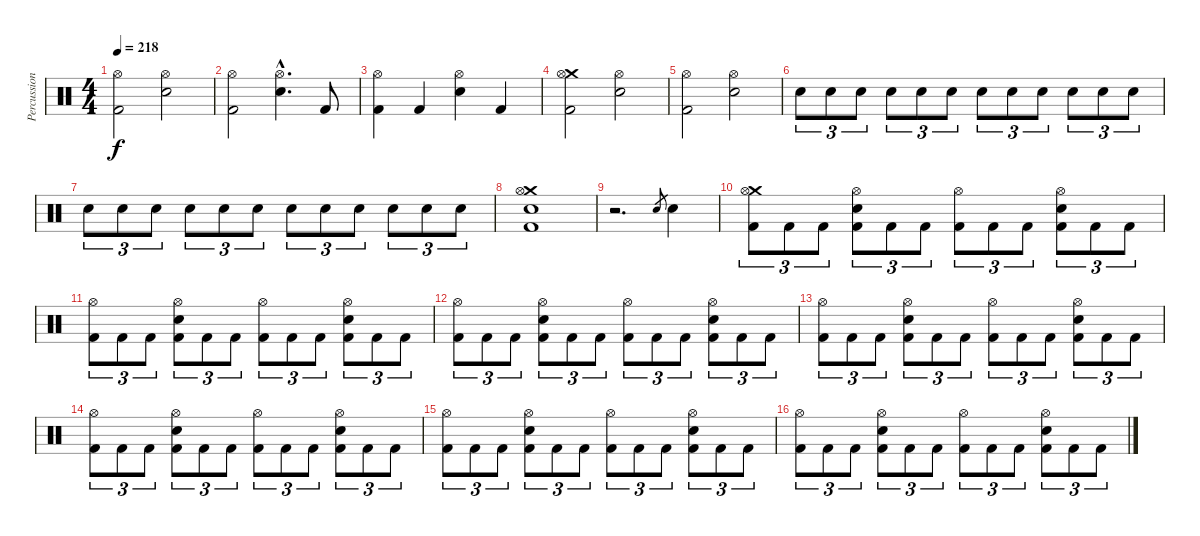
\track ("Percussion" "Percussion") {instrument percussion}
\staff {score}
\articulation defaults
\ts (4 4)
\tempo 218
\clef neutral
\ks c
("Hi-Hat (open)" "Kick (hit) 2").2{dy f} ("Hi-Hat (open)" "Electric Snare (hit)").2 |
("Hi-Hat (open)" "Kick (hit) 2").2 ("Hi-Hat (open)"{hac} "Electric Snare (hit)"{hac}).4{d} "Kick (hit) 2".8 |
("Hi-Hat (open)" "Kick (hit) 2").4 "Kick (hit) 2".4 ("Hi-Hat (open)" "Electric Snare (hit)").4 "Kick (hit) 2".4 |
("Crash medium (hit)" "Hi-Hat (open)" "Kick (hit) 2").2 ("Hi-Hat (open)" "Electric Snare (hit)").2 |
("Hi-Hat (open)" "Kick (hit) 2").2 ("Hi-Hat (open)" "Electric Snare (hit)").2 |
"Electric Snare (hit)".8{tu (3 2)} "Electric Snare (hit)".8{tu (3 2)} "Electric Snare (hit)".8{tu (3 2)} "Electric Snare (hit)".8{tu (3 2)} "Electric Snare (hit)".8{tu (3 2)} "Electric Snare (hit)".8{tu (3 2)} "Electric Snare (hit)".8{tu (3 2)} "Electric Snare (hit)".8{tu (3 2)} "Electric Snare (hit)".8{tu (3 2)} "Electric Snare (hit)".8{tu (3 2)} "Electric Snare (hit)".8{tu (3 2)} "Electric Snare (hit)".8{tu (3 2)} |
"Electric Snare (hit)".8{tu (3 2)} "Electric Snare (hit)".8{tu (3 2)} "Electric Snare (hit)".8{tu (3 2)} "Electric Snare (hit)".8{tu (3 2)} "Electric Snare (hit)".8{tu (3 2)} "Electric Snare (hit)".8{tu (3 2)} "Electric Snare (hit)".8{tu (3 2)} "Electric Snare (hit)".8{tu (3 2)} "Electric Snare (hit)".8{tu (3 2)} "Electric Snare (hit)".8{tu (3 2)} "Electric Snare (hit)".8{tu (3 2)} "Electric Snare (hit)".8{tu (3 2)} |
("Crash medium (hit)" "Hi-Hat (open)" "Electric Snare (hit)" "Kick (hit) 2").1 |
r.2{d} "Electric Snare (hit)".8{gr} "Electric Snare (hit)".4 |
("Crash medium (hit)" "Hi-Hat (open)" "Kick (hit) 2").8{tu (3 2)} "Kick (hit) 2".8{tu (3 2)} "Kick (hit) 2".8{tu (3 2)} ("Hi-Hat (open)" "Electric Snare (hit)" "Kick (hit) 2").8{tu (3 2)} "Kick (hit) 2".8{tu (3 2)} "Kick (hit) 2".8{tu (3 2)} ("Hi-Hat (open)" "Kick (hit) 2").8{tu (3 2)} "Kick (hit) 2".8{tu (3 2)} "Kick (hit) 2".8{tu (3 2)} ("Hi-Hat (open)" "Electric Snare (hit)" "Kick (hit) 2").8{tu (3 2)} "Kick (hit) 2".8{tu (3 2)} "Kick (hit) 2".8{tu (3 2)} |
("Hi-Hat (open)" "Kick (hit) 2").8{tu (3 2)} "Kick (hit) 2".8{tu (3 2)} "Kick (hit) 2".8{tu (3 2)} ("Hi-Hat (open)" "Electric Snare (hit)" "Kick (hit) 2").8{tu (3 2)} "Kick (hit) 2".8{tu (3 2)} "Kick (hit) 2".8{tu (3 2)} ("Hi-Hat (open)" "Kick (hit) 2").8{tu (3 2)} "Kick (hit) 2".8{tu (3 2)} "Kick (hit) 2".8{tu (3 2)} ("Hi-Hat (open)" "Electric Snare (hit)" "Kick (hit) 2").8{tu (3 2)} "Kick (hit) 2".8{tu (3 2)} "Kick (hit) 2".8{tu (3 2)} |
("Hi-Hat (open)" "Kick (hit) 2").8{tu (3 2)} "Kick (hit) 2".8{tu (3 2)} "Kick (hit) 2".8{tu (3 2)} ("Hi-Hat (open)" "Electric Snare (hit)" "Kick (hit) 2").8{tu (3 2)} "Kick (hit) 2".8{tu (3 2)} "Kick (hit) 2".8{tu (3 2)} ("Hi-Hat (open)" "Kick (hit) 2").8{tu (3 2)} "Kick (hit) 2".8{tu (3 2)} "Kick (hit) 2".8{tu (3 2)} ("Hi-Hat (open)" "Electric Snare (hit)" "Kick (hit) 2").8{tu (3 2)} "Kick (hit) 2".8{tu (3 2)} "Kick (hit) 2".8{tu (3 2)} |
("Hi-Hat (open)" "Kick (hit) 2").8{tu (3 2)} "Kick (hit) 2".8{tu (3 2)} "Kick (hit) 2".8{tu (3 2)} ("Hi-Hat (open)" "Electric Snare (hit)" "Kick (hit) 2").8{tu (3 2)} "Kick (hit) 2".8{tu (3 2)} "Kick (hit) 2".8{tu (3 2)} ("Hi-Hat (open)" "Kick (hit) 2").8{tu (3 2)} "Kick (hit) 2".8{tu (3 2)} "Kick (hit) 2".8{tu (3 2)} ("Hi-Hat (open)" "Electric Snare (hit)" "Kick (hit) 2").8{tu (3 2)} "Kick (hit) 2".8{tu (3 2)} "Kick (hit) 2".8{tu (3 2)} |
("Hi-Hat (open)" "Kick (hit) 2").8{tu (3 2)} "Kick (hit) 2".8{tu (3 2)} "Kick (hit) 2".8{tu (3 2)} ("Hi-Hat (open)" "Electric Snare (hit)" "Kick (hit) 2").8{tu (3 2)} "Kick (hit) 2".8{tu (3 2)} "Kick (hit) 2".8{tu (3 2)} ("Hi-Hat (open)" "Kick (hit) 2").8{tu (3 2)} "Kick (hit) 2".8{tu (3 2)} "Kick (hit) 2".8{tu (3 2)} ("Hi-Hat (open)" "Electric Snare (hit)" "Kick (hit) 2").8{tu (3 2)} "Kick (hit) 2".8{tu (3 2)} "Kick (hit) 2".8{tu (3 2)} |
("Hi-Hat (open)" "Kick (hit) 2").8{tu (3 2)} "Kick (hit) 2".8{tu (3 2)} "Kick (hit) 2".8{tu (3 2)} ("Hi-Hat (open)" "Electric Snare (hit)" "Kick (hit) 2").8{tu (3 2)} "Kick (hit) 2".8{tu (3 2)} "Kick (hit) 2".8{tu (3 2)} ("Hi-Hat (open)" "Kick (hit) 2").8{tu (3 2)} "Kick (hit) 2".8{tu (3 2)} "Kick (hit) 2".8{tu (3 2)} ("Hi-Hat (open)" "Electric Snare (hit)" "Kick (hit) 2").8{tu (3 2)} "Kick (hit) 2".8{tu (3 2)} "Kick (hit) 2".8{tu (3 2)} |
("Hi-Hat (open)" "Kick (hit) 2").8{tu (3 2)} "Kick (hit) 2".8{tu (3 2)} "Kick (hit) 2".8{tu (3 2)} ("Hi-Hat (open)" "Electric Snare (hit)" "Kick (hit) 2").8{tu (3 2)} "Kick (hit) 2".8{tu (3 2)} "Kick (hit) 2".8{tu (3 2)} ("Hi-Hat (open)" "Kick (hit) 2").8{tu (3 2)} "Kick (hit) 2".8{tu (3 2)} "Kick (hit) 2".8{tu (3 2)} ("Hi-Hat (open)" "Electric Snare (hit)" "Kick (hit) 2").8{tu (3 2)} "Kick (hit) 2".8{tu (3 2)} "Kick (hit) 2".8{tu (3 2)}
